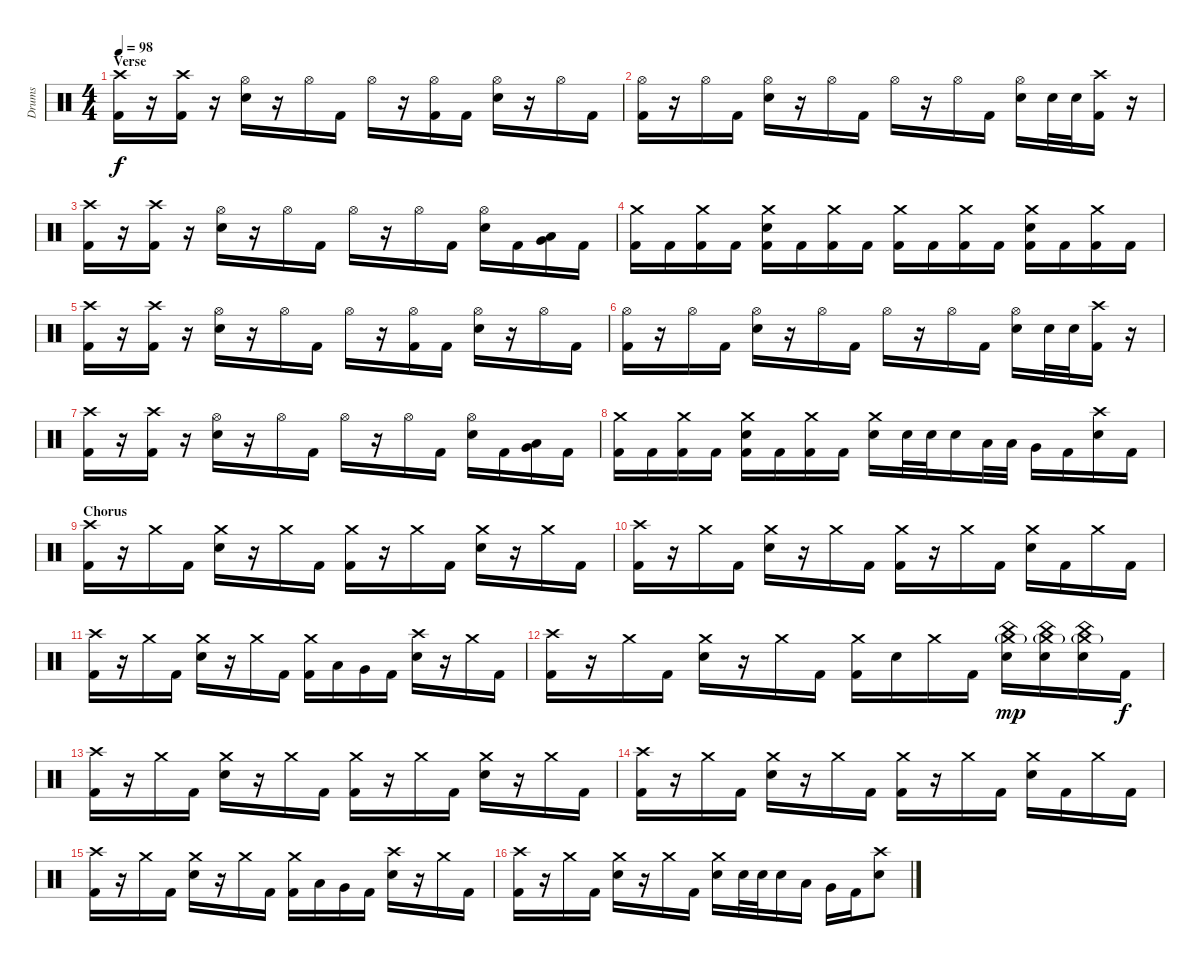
\track ("Drums" "Drums") {instrument percussion}
\staff {score}
\articulation defaults
\ts (4 4)
\section ("" "Verse")
\tempo 98
\clef neutral
\ks c
("Crash high (hit)" "Kick (hit) 2").16{dy f} r.16 ("Crash high (hit)" "Kick (hit) 2").16 r.16 ("Hi-Hat (open)" "Snare (hit) 2").16 r.16 "Hi-Hat (open)".16 "Kick (hit) 2".16 "Hi-Hat (open)".16 r.16 ("Hi-Hat (open)" "Kick (hit) 2").16 "Kick (hit) 2".16 ("Hi-Hat (open)" "Snare (hit) 2").16 r.16 "Hi-Hat (open)".16 "Kick (hit) 2".16 |
("Hi-Hat (open)" "Kick (hit) 2").16 r.16 "Hi-Hat (open)".16 "Kick (hit) 2".16 ("Hi-Hat (open)" "Snare (hit) 2").16 r.16 "Hi-Hat (open)".16 "Kick (hit) 2".16 "Hi-Hat (open)".16 r.16 "Hi-Hat (open)".16 "Kick (hit) 2".16 ("Hi-Hat (open)" "Snare (hit) 2").16 "Snare (hit) 2".32 "Snare (hit) 2".32 ("Crash high (hit)" "Kick (hit) 2").16 r.16 |
("Crash high (hit)" "Kick (hit) 2").16 r.16 ("Crash high (hit)" "Kick (hit) 2").16 r.16 ("Hi-Hat (open)" "Snare (hit) 2").16 r.16 "Hi-Hat (open)".16 "Kick (hit) 2".16 "Hi-Hat (open)".16 r.16 "Hi-Hat (open)".16 "Kick (hit) 2".16 ("Hi-Hat (open)" "Snare (hit) 2").16 "Kick (hit) 2".16 ("Low Tom (hit)" "Very Low Tom (hit)").16 "Kick (hit) 2".16 |
("Crash medium (hit)" "Kick (hit) 2").16 "Kick (hit) 2".16 ("Crash medium (hit)" "Kick (hit) 2").16 "Kick (hit) 2".16 ("Crash medium (hit)" "Snare (hit) 2" "Kick (hit) 2").16 "Kick (hit) 2".16 ("Crash medium (hit)" "Kick (hit) 2").16 "Kick (hit) 2".16 ("Crash medium (hit)" "Kick (hit) 2").16 "Kick (hit) 2".16 ("Crash medium (hit)" "Kick (hit) 2").16 "Kick (hit) 2".16 ("Crash medium (hit)" "Snare (hit) 2" "Kick (hit) 2").16 "Kick (hit) 2".16 ("Crash medium (hit)" "Kick (hit) 2").16 "Kick (hit) 2".16 |
("Crash high (hit)" "Kick (hit) 2").16 r.16 ("Crash high (hit)" "Kick (hit) 2").16 r.16 ("Hi-Hat (open)" "Snare (hit) 2").16 r.16 "Hi-Hat (open)".16 "Kick (hit) 2".16 "Hi-Hat (open)".16 r.16 ("Hi-Hat (open)" "Kick (hit) 2").16 "Kick (hit) 2".16 ("Hi-Hat (open)" "Snare (hit) 2").16 r.16 "Hi-Hat (open)".16 "Kick (hit) 2".16 |
("Hi-Hat (open)" "Kick (hit) 2").16 r.16 "Hi-Hat (open)".16 "Kick (hit) 2".16 ("Hi-Hat (open)" "Snare (hit) 2").16 r.16 "Hi-Hat (open)".16 "Kick (hit) 2".16 "Hi-Hat (open)".16 r.16 "Hi-Hat (open)".16 "Kick (hit) 2".16 ("Hi-Hat (open)" "Snare (hit) 2").16 "Snare (hit) 2".32 "Snare (hit) 2".32 ("Crash high (hit)" "Kick (hit) 2").16 r.16 |
("Crash high (hit)" "Kick (hit) 2").16 r.16 ("Crash high (hit)" "Kick (hit) 2").16 r.16 ("Hi-Hat (open)" "Snare (hit) 2").16 r.16 "Hi-Hat (open)".16 "Kick (hit) 2".16 "Hi-Hat (open)".16 r.16 "Hi-Hat (open)".16 "Kick (hit) 2".16 ("Hi-Hat (open)" "Snare (hit) 2").16 "Kick (hit) 2".16 ("Low Tom (hit)" "Very Low Tom (hit)").16 "Kick (hit) 2".16 |
("Crash medium (hit)" "Kick (hit) 2").16 "Kick (hit) 2".16 ("Crash medium (hit)" "Kick (hit) 2").16 "Kick (hit) 2".16 ("Crash medium (hit)" "Snare (hit) 2" "Kick (hit) 2").16 "Kick (hit) 2".16 ("Crash medium (hit)" "Kick (hit) 2").16 "Kick (hit) 2".16 ("Crash medium (hit)" "Snare (hit) 2").16 "Snare (hit) 2".32 "Snare (hit) 2".32 "Snare (hit) 2".16 "Low Tom (hit)".32 "Low Tom (hit)".32 "Very Low Tom (hit)".16 "Kick (hit) 2".16 ("Crash high (hit)" "Snare (hit) 2").16 "Kick (hit) 2".16 |
\section ("" "Chorus")
("Crash high (hit)" "Kick (hit) 2").16 r.16 "Crash medium (hit)".16 "Kick (hit) 2".16 ("Crash medium (hit)" "Snare (hit) 2").16 r.16 "Crash medium (hit)".16 "Kick (hit) 2".16 ("Crash medium (hit)" "Kick (hit) 2").16 r.16 "Crash medium (hit)".16 "Kick (hit) 2".16 ("Crash medium (hit)" "Snare (hit) 2").16 r.16 "Crash medium (hit)".16 "Kick (hit) 2".16 |
("Crash high (hit)" "Kick (hit) 2").16 r.16 "Crash medium (hit)".16 "Kick (hit) 2".16 ("Crash medium (hit)" "Snare (hit) 2").16 r.16 "Crash medium (hit)".16 "Kick (hit) 2".16 ("Crash medium (hit)" "Kick (hit) 2").16 r.16 "Crash medium (hit)".16 "Kick (hit) 2".16 ("Crash medium (hit)" "Snare (hit) 2").16 "Kick (hit) 2".16 "Crash medium (hit)".16 "Kick (hit) 2".16 |
("Crash high (hit)" "Kick (hit) 2").16 r.16 "Crash medium (hit)".16 "Kick (hit) 2".16 ("Crash medium (hit)" "Snare (hit) 2").16 r.16 "Crash medium (hit)".16 "Kick (hit) 2".16 ("Crash medium (hit)" "Kick (hit) 2").16 "Low Tom (hit)".16 "Very Low Tom (hit)".16 "Kick (hit) 2".16 ("Crash high (hit)" "Snare (hit) 2").16 r.16 "Crash medium (hit)".16 "Kick (hit) 2".16 |
("Crash high (hit)" "Kick (hit) 2").16 r.16 "Crash medium (hit)".16 "Kick (hit) 2".16 ("Crash medium (hit)" "Snare (hit) 2").16 r.16 "Crash medium (hit)".16 "Kick (hit) 2".16 ("Crash medium (hit)" "Kick (hit) 2").16 "Snare (hit) 2".16 "Crash medium (hit)".16 "Kick (hit) 2".16 ("China (hit)" "Crash medium (hit)"{g} "Snare (hit) 2").16{dy mp} ("China (hit)" "Crash medium (hit)"{g} "Snare (hit) 2").16 ("China (hit)" "Crash medium (hit)"{g} "Snare (hit) 2").16 "Kick (hit) 2".16{dy f} |
("Crash high (hit)" "Kick (hit) 2").16 r.16 "Crash medium (hit)".16 "Kick (hit) 2".16 ("Crash medium (hit)" "Snare (hit) 2").16 r.16 "Crash medium (hit)".16 "Kick (hit) 2".16 ("Crash medium (hit)" "Kick (hit) 2").16 r.16 "Crash medium (hit)".16 "Kick (hit) 2".16 ("Crash medium (hit)" "Snare (hit) 2").16 r.16 "Crash medium (hit)".16 "Kick (hit) 2".16 |
("Crash high (hit)" "Kick (hit) 2").16 r.16 "Crash medium (hit)".16 "Kick (hit) 2".16 ("Crash medium (hit)" "Snare (hit) 2").16 r.16 "Crash medium (hit)".16 "Kick (hit) 2".16 ("Crash medium (hit)" "Kick (hit) 2").16 r.16 "Crash medium (hit)".16 "Kick (hit) 2".16 ("Crash medium (hit)" "Snare (hit) 2").16 "Kick (hit) 2".16 "Crash medium (hit)".16 "Kick (hit) 2".16 |
("Crash high (hit)" "Kick (hit) 2").16 r.16 "Crash medium (hit)".16 "Kick (hit) 2".16 ("Crash medium (hit)" "Snare (hit) 2").16 r.16 "Crash medium (hit)".16 "Kick (hit) 2".16 ("Crash medium (hit)" "Kick (hit) 2").16 "Low Tom (hit)".16 "Very Low Tom (hit)".16 "Kick (hit) 2".16 ("Crash high (hit)" "Snare (hit) 2").16 r.16 "Crash medium (hit)".16 "Kick (hit) 2".16 |
("Crash high (hit)" "Kick (hit) 2").16 r.16 "Crash medium (hit)".16 "Kick (hit) 2".16 ("Crash medium (hit)" "Snare (hit) 2").16 r.16 "Crash medium (hit)".16 "Kick (hit) 2".16 ("Crash medium (hit)" "Snare (hit) 2").16 "Snare (hit) 2".32 "Snare (hit) 2".32 "Snare (hit) 2".16 "Low Tom (hit)".16 "Very Low Tom (hit)".16 "Kick (hit) 2".16 ("Crash high (hit)" "Snare (hit) 2").8
